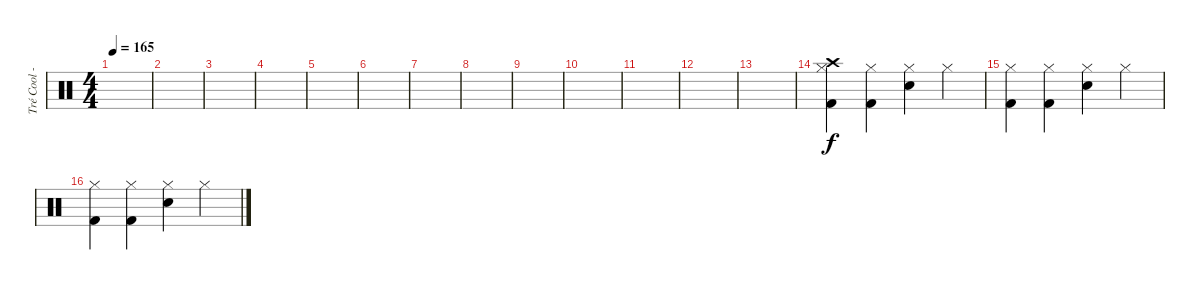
\track ("Tré Cool - Drums" "Tré Cool -") {instrument percussion}
\staff {score}
\articulation defaults
\ts (4 4)
\tempo 165
\clef neutral
\ks c
|
|
|
|
|
|
|
|
|
|
|
|
|
("Crash high (hit)" "Hi-Hat (closed)" "Kick (hit) 2").4 ("Hi-Hat (closed)" "Kick (hit) 2").4 ("Hi-Hat (closed)" "Electric Snare (hit)").4 "Hi-Hat (closed)".4 |
("Hi-Hat (closed)" "Kick (hit) 2").4 ("Hi-Hat (closed)" "Kick (hit) 2").4 ("Hi-Hat (closed)" "Electric Snare (hit)").4 "Hi-Hat (closed)".4 |
("Hi-Hat (closed)" "Kick (hit) 2").4 ("Hi-Hat (closed)" "Kick (hit) 2").4 ("Hi-Hat (closed)" "Electric Snare (hit)").4 "Hi-Hat (closed)".4
